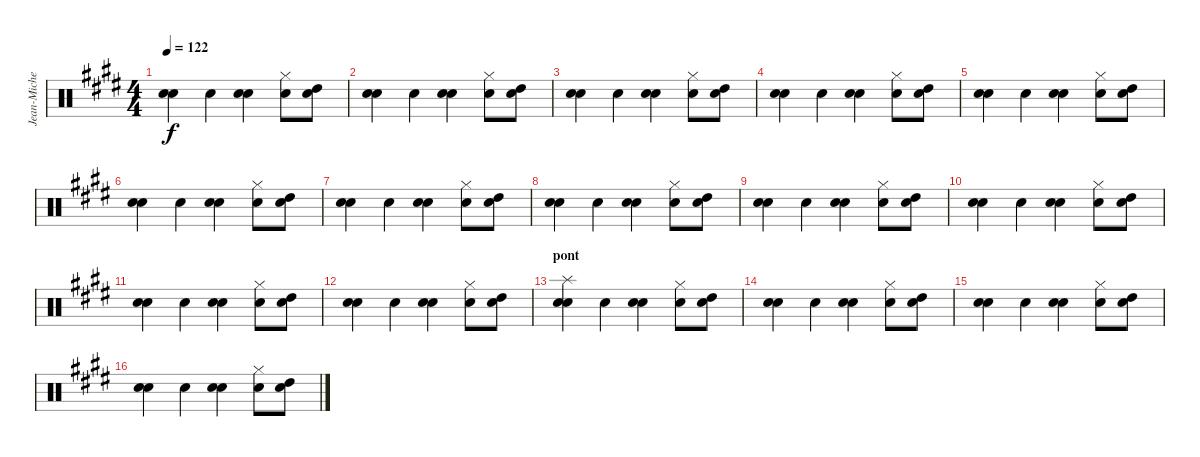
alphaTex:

\track ("Jean-Michel Truong (Batterie)" "Jean-Miche") {instrument percussion}
\staff {score}
\articulation defaults
\ts (4 4)
\tempo 122
\clef neutral
\ks e
("Snare (hit) 2" "Electric Snare (hit)").4{dy f} "Electric Snare (hit)".4 ("Snare (hit) 2" "Electric Snare (hit)").4 ("Electric Snare (hit)" "Hi-Hat (closed)").8 ("Electric Snare (hit)" "High Tom (hit)").8 |
("Snare (hit) 2" "Electric Snare (hit)").4 "Electric Snare (hit)".4 ("Snare (hit) 2" "Electric Snare (hit)").4 ("Electric Snare (hit)" "Hi-Hat (closed)").8 ("Electric Snare (hit)" "High Tom (hit)").8 |
("Snare (hit) 2" "Electric Snare (hit)").4 "Electric Snare (hit)".4 ("Snare (hit) 2" "Electric Snare (hit)").4 ("Electric Snare (hit)" "Hi-Hat (closed)").8 ("Electric Snare (hit)" "High Tom (hit)").8 |
("Snare (hit) 2" "Electric Snare (hit)").4 "Electric Snare (hit)".4 ("Snare (hit) 2" "Electric Snare (hit)").4 ("Electric Snare (hit)" "Hi-Hat (closed)").8 ("Electric Snare (hit)" "High Tom (hit)").8 |
("Snare (hit) 2" "Electric Snare (hit)").4 "Electric Snare (hit)".4 ("Snare (hit) 2" "Electric Snare (hit)").4 ("Electric Snare (hit)" "Hi-Hat (closed)").8 ("Electric Snare (hit)" "High Tom (hit)").8 |
("Snare (hit) 2" "Electric Snare (hit)").4 "Electric Snare (hit)".4 ("Snare (hit) 2" "Electric Snare (hit)").4 ("Electric Snare (hit)" "Hi-Hat (closed)").8 ("Electric Snare (hit)" "High Tom (hit)").8 |
("Snare (hit) 2" "Electric Snare (hit)").4 "Electric Snare (hit)".4 ("Snare (hit) 2" "Electric Snare (hit)").4 ("Electric Snare (hit)" "Hi-Hat (closed)").8 ("Electric Snare (hit)" "High Tom (hit)").8 |
("Snare (hit) 2" "Electric Snare (hit)").4 "Electric Snare (hit)".4 ("Snare (hit) 2" "Electric Snare (hit)").4 ("Electric Snare (hit)" "Hi-Hat (closed)").8 ("Electric Snare (hit)" "High Tom (hit)").8 |
("Snare (hit) 2" "Electric Snare (hit)").4 "Electric Snare (hit)".4 ("Snare (hit) 2" "Electric Snare (hit)").4 ("Electric Snare (hit)" "Hi-Hat (closed)").8 ("Electric Snare (hit)" "High Tom (hit)").8 |
("Snare (hit) 2" "Electric Snare (hit)").4 "Electric Snare (hit)".4 ("Snare (hit) 2" "Electric Snare (hit)").4 ("Electric Snare (hit)" "Hi-Hat (closed)").8 ("Electric Snare (hit)" "High Tom (hit)").8 |
("Snare (hit) 2" "Electric Snare (hit)").4 "Electric Snare (hit)".4 ("Snare (hit) 2" "Electric Snare (hit)").4 ("Electric Snare (hit)" "Hi-Hat (closed)").8 ("Electric Snare (hit)" "High Tom (hit)").8 |
("Snare (hit) 2" "Electric Snare (hit)").4 "Electric Snare (hit)".4 ("Snare (hit) 2" "Electric Snare (hit)").4 ("Electric Snare (hit)" "Hi-Hat (closed)").8 ("Electric Snare (hit)" "High Tom (hit)").8 |
\section ("" "pont")
("Snare (hit) 2" "Electric Snare (hit)" "Splash (hit)").4 "Electric Snare (hit)".4 ("Snare (hit) 2" "Electric Snare (hit)").4 ("Electric Snare (hit)" "Hi-Hat (closed)").8 ("Electric Snare (hit)" "High Tom (hit)").8 |
("Snare (hit) 2" "Electric Snare (hit)").4 "Electric Snare (hit)".4 ("Snare (hit) 2" "Electric Snare (hit)").4 ("Electric Snare (hit)" "Hi-Hat (closed)").8 ("Electric Snare (hit)" "High Tom (hit)").8 |
("Snare (hit) 2" "Electric Snare (hit)").4 "Electric Snare (hit)".4 ("Snare (hit) 2" "Electric Snare (hit)").4 ("Electric Snare (hit)" "Hi-Hat (closed)").8 ("Electric Snare (hit)" "High Tom (hit)").8 |
("Snare (hit) 2" "Electric Snare (hit)").4 "Electric Snare (hit)".4 ("Snare (hit) 2" "Electric Snare (hit)").4 ("Electric Snare (hit)" "Hi-Hat (closed)").8 ("Electric Snare (hit)" "High Tom (hit)").8
